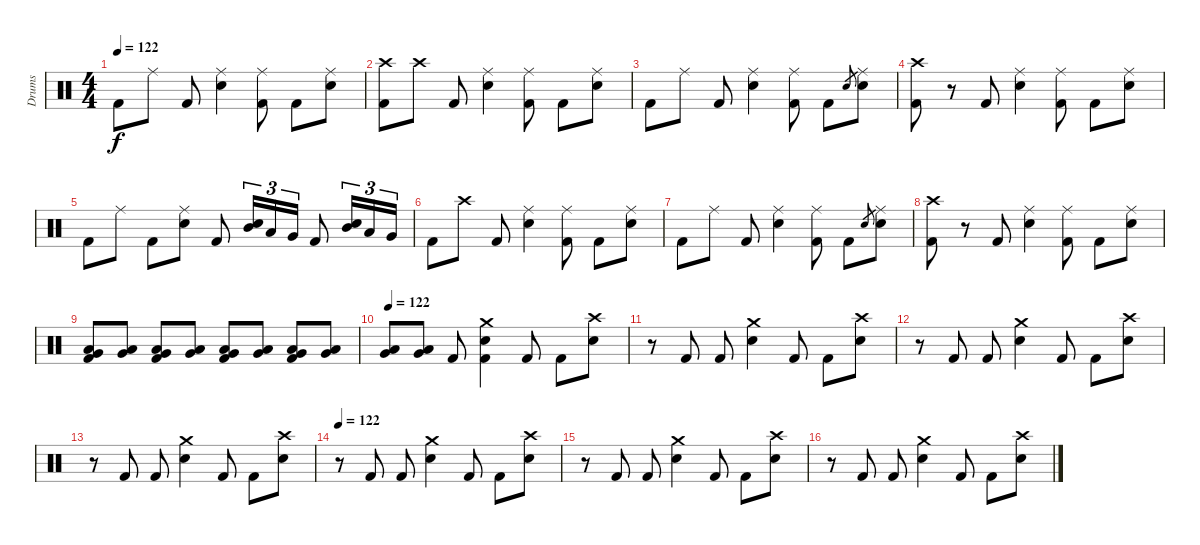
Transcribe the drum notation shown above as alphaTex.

\track ("Drums" "Drums") {instrument percussion}
\staff {score}
\articulation defaults
\ts (4 4)
\tempo 122
\clef neutral
\ks c "Kick (hit) 2".8{dy f} "Ride (middle)".8 "Kick (hit) 2".8
("Ride (middle)" "Snare (hit) 2").4 ("Ride (middle)" "Kick (hit) 2").8 "Kick (hit) 2".8 ("Ride (middle)" "Snare (hit) 2").8 |
("Crash high (hit)" "Kick (hit) 2").8 "Crash high (hit)".8 "Kick (hit) 2".8 ("Ride (middle)" "Snare (hit) 2").4 ("Ride (middle)" "Kick (hit) 2").8 "Kick (hit) 2".8 ("Ride (middle)" "Snare (hit) 2").8 |
"Kick (hit) 2".8 "Ride (middle)".8 "Kick (hit) 2".8 ("Ride (middle)" "Snare (hit) 2").4 ("Ride (middle)" "Kick (hit) 2").8 "Kick (hit) 2".8 "Snare (hit) 2".8{gr} ("Ride (middle)" "Snare (hit) 2").8 |
("Crash high (hit)" "Kick (hit) 2").8 r.8 "Kick (hit) 2".8 ("Ride (middle)" "Snare (hit) 2").4 ("Ride (middle)" "Kick (hit) 2").8 "Kick (hit) 2".8 ("Ride (middle)" "Snare (hit) 2").8 |
"Kick (hit) 2".8 "Ride (middle)".8 "Kick (hit) 2".8 ("Ride (middle)" "Snare (hit) 2").8 "Kick (hit) 2".8 ("Mid Tom (hit)" "Snare (hit) 2").16{tu (3 2)} "Low Tom (hit)".16{tu (3 2)} "Very Low Tom (hit)".16{tu (3 2)} "Kick (hit) 2".8 ("Mid Tom (hit)" "Snare (hit) 2").16{tu (3 2)} "Low Tom (hit)".16{tu (3 2)} "Very Low Tom (hit)".16{tu (3 2)} |
"Kick (hit) 2".8 "Crash high (hit)".8 "Kick (hit) 2".8 ("Ride (middle)" "Snare (hit) 2").4 ("Ride (middle)" "Kick (hit) 2").8 "Kick (hit) 2".8 ("Ride (middle)" "Snare (hit) 2").8 |
"Kick (hit) 2".8 "Ride (middle)".8 "Kick (hit) 2".8 ("Ride (middle)" "Snare (hit) 2").4 ("Ride (middle)" "Kick (hit) 2").8 "Kick (hit) 2".8 "Snare (hit) 2".8{gr} ("Ride (middle)" "Snare (hit) 2").8 |
("Crash high (hit)" "Kick (hit) 2").8 r.8 "Kick (hit) 2".8 ("Ride (middle)" "Snare (hit) 2").4 ("Ride (middle)" "Kick (hit) 2").8 "Kick (hit) 2".8 ("Ride (middle)" "Snare (hit) 2").8 |
("Low Tom (hit)" "Very Low Tom (hit)" "Kick (hit) 2").8 ("Low Tom (hit)" "Very Low Tom (hit)").8 ("Low Tom (hit)" "Very Low Tom (hit)" "Kick (hit) 2").8 ("Low Tom (hit)" "Very Low Tom (hit)").8 ("Low Tom (hit)" "Very Low Tom (hit)" "Kick (hit) 2").8 ("Low Tom (hit)" "Very Low Tom (hit)").8 ("Low Tom (hit)" "Very Low Tom (hit)" "Kick (hit) 2").8 ("Low Tom (hit)" "Very Low Tom (hit)").8 |
\tempo 122
("Low Tom (hit)" "Very Low Tom (hit)").8 ("Low Tom (hit)" "Very Low Tom (hit)").8 "Kick (hit) 2".8 ("Crash medium (hit)" "Snare (hit) 2" "Kick (hit) 2").4 "Kick (hit) 2".8 "Kick (hit) 2".8 ("Crash high (hit)" "Snare (hit) 2").8 |
r.8 "Kick (hit) 2".8 "Kick (hit) 2".8 ("Crash medium (hit)" "Snare (hit) 2").4 "Kick (hit) 2".8 "Kick (hit) 2".8 ("Crash high (hit)" "Snare (hit) 2").8 |
r.8 "Kick (hit) 2".8 "Kick (hit) 2".8 ("Crash medium (hit)" "Snare (hit) 2").4 "Kick (hit) 2".8 "Kick (hit) 2".8 ("Crash high (hit)" "Snare (hit) 2").8 |
r.8 "Kick (hit) 2".8 "Kick (hit) 2".8 ("Crash medium (hit)" "Snare (hit) 2").4 "Kick (hit) 2".8 "Kick (hit) 2".8 ("Crash high (hit)" "Snare (hit) 2").8 |
\tempo 122
r.8 "Kick (hit) 2".8 "Kick (hit) 2".8 ("Crash medium (hit)" "Snare (hit) 2").4 "Kick (hit) 2".8 "Kick (hit) 2".8 ("Crash high (hit)" "Snare (hit) 2").8 |
r.8 "Kick (hit) 2".8 "Kick (hit) 2".8 ("Crash medium (hit)" "Snare (hit) 2").4 "Kick (hit) 2".8 "Kick (hit) 2".8 ("Crash high (hit)" "Snare (hit) 2").8 |
r.8 "Kick (hit) 2".8 "Kick (hit) 2".8 ("Crash medium (hit)" "Snare (hit) 2").4 "Kick (hit) 2".8 "Kick (hit) 2".8 ("Crash high (hit)" "Snare (hit) 2").8
